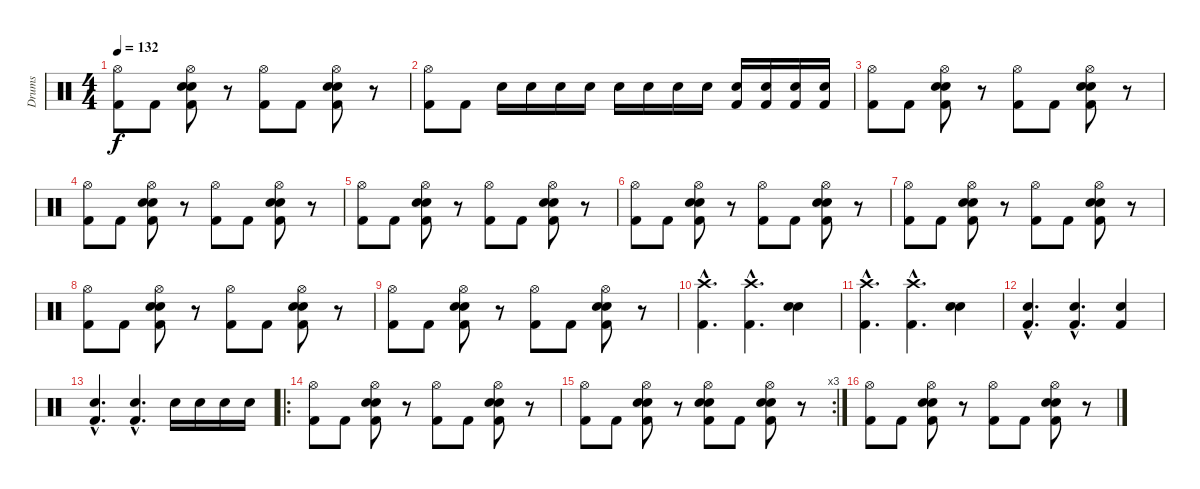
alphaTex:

\track ("Drums" "Drums") {instrument percussion}
\staff {score}
\articulation defaults
\ts (4 4)
\tempo 132
\clef neutral
\ks c
("Hi-Hat (open)" "Kick (hit) 2").8{dy f} "Kick (hit) 2".8 ("Hi-Hat (open)" "Electric Snare (hit)" "Snare (hit) 2" "Kick (hit) 2").8 r.8 ("Hi-Hat (open)" "Kick (hit) 2").8 "Kick (hit) 2".8 ("Hi-Hat (open)" "Electric Snare (hit)" "Snare (hit) 2" "Kick (hit) 2").8 r.8 |
("Hi-Hat (open)" "Kick (hit) 2").8 "Kick (hit) 2".8 "Electric Snare (hit)".16 "Electric Snare (hit)".16 "Electric Snare (hit)".16 "Electric Snare (hit)".16 "Snare (hit) 2".16 "Snare (hit) 2".16 "Snare (hit) 2".16 "Snare (hit) 2".16 ("Kick (hit) 2" "Snare (hit) 2").16 ("Kick (hit) 2" "Snare (hit) 2").16 ("Kick (hit) 2" "Snare (hit) 2").16 ("Kick (hit) 2" "Snare (hit) 2").16 |
("Hi-Hat (open)" "Kick (hit) 2").8 "Kick (hit) 2".8 ("Hi-Hat (open)" "Electric Snare (hit)" "Snare (hit) 2" "Kick (hit) 2").8 r.8 ("Hi-Hat (open)" "Kick (hit) 2").8 "Kick (hit) 2".8 ("Hi-Hat (open)" "Electric Snare (hit)" "Snare (hit) 2" "Kick (hit) 2").8 r.8 |
("Hi-Hat (open)" "Kick (hit) 2").8 "Kick (hit) 2".8 ("Hi-Hat (open)" "Electric Snare (hit)" "Snare (hit) 2" "Kick (hit) 2").8 r.8 ("Hi-Hat (open)" "Kick (hit) 2").8 "Kick (hit) 2".8 ("Hi-Hat (open)" "Electric Snare (hit)" "Snare (hit) 2" "Kick (hit) 2").8 r.8 |
("Hi-Hat (open)" "Kick (hit) 2").8 "Kick (hit) 2".8 ("Hi-Hat (open)" "Electric Snare (hit)" "Snare (hit) 2" "Kick (hit) 2").8 r.8 ("Hi-Hat (open)" "Kick (hit) 2").8 "Kick (hit) 2".8 ("Hi-Hat (open)" "Electric Snare (hit)" "Snare (hit) 2" "Kick (hit) 2").8 r.8 |
("Hi-Hat (open)" "Kick (hit) 2").8 "Kick (hit) 2".8 ("Hi-Hat (open)" "Electric Snare (hit)" "Snare (hit) 2" "Kick (hit) 2").8 r.8 ("Hi-Hat (open)" "Kick (hit) 2").8 "Kick (hit) 2".8 ("Hi-Hat (open)" "Electric Snare (hit)" "Snare (hit) 2" "Kick (hit) 2").8 r.8 |
("Hi-Hat (open)" "Kick (hit) 2").8 "Kick (hit) 2".8 ("Hi-Hat (open)" "Electric Snare (hit)" "Snare (hit) 2" "Kick (hit) 2").8 r.8 ("Hi-Hat (open)" "Kick (hit) 2").8 "Kick (hit) 2".8 ("Hi-Hat (open)" "Electric Snare (hit)" "Snare (hit) 2" "Kick (hit) 2").8 r.8 |
("Hi-Hat (open)" "Kick (hit) 2").8 "Kick (hit) 2".8 ("Hi-Hat (open)" "Electric Snare (hit)" "Snare (hit) 2" "Kick (hit) 2").8 r.8 ("Hi-Hat (open)" "Kick (hit) 2").8 "Kick (hit) 2".8 ("Hi-Hat (open)" "Electric Snare (hit)" "Snare (hit) 2" "Kick (hit) 2").8 r.8 |
("Hi-Hat (open)" "Kick (hit) 2").8 "Kick (hit) 2".8 ("Hi-Hat (open)" "Electric Snare (hit)" "Snare (hit) 2" "Kick (hit) 2").8 r.8 ("Hi-Hat (open)" "Kick (hit) 2").8 "Kick (hit) 2".8 ("Hi-Hat (open)" "Electric Snare (hit)" "Snare (hit) 2" "Kick (hit) 2").8 r.8 |
("Crash high (hit)"{hac} "Kick (hit) 2"{hac}).4{d} ("Crash high (hit)"{hac} "Kick (hit) 2"{hac}).4{d} ("Electric Snare (hit)" "Snare (hit) 2").4 |
("Crash high (hit)"{hac} "Kick (hit) 2"{hac}).4{d} ("Crash high (hit)"{hac} "Kick (hit) 2"{hac}).4{d} ("Electric Snare (hit)" "Snare (hit) 2").4 |
("Snare (hit) 2"{hac} "Kick (hit) 2"{hac}).4{d} ("Snare (hit) 2"{hac} "Kick (hit) 2"{hac}).4{d} ("Snare (hit) 2" "Kick (hit) 2").4 |
("Snare (hit) 2"{hac} "Kick (hit) 2"{hac}).4{d} ("Snare (hit) 2"{hac} "Kick (hit) 2"{hac}).4{d} "Snare (hit) 2".16 "Snare (hit) 2".16 "Snare (hit) 2".16 "Snare (hit) 2".16 |
\ro
("Hi-Hat (open)" "Kick (hit) 2").8 "Kick (hit) 2".8 ("Hi-Hat (open)" "Electric Snare (hit)" "Snare (hit) 2" "Kick (hit) 2").8 r.8 ("Hi-Hat (open)" "Kick (hit) 2").8 "Kick (hit) 2".8 ("Hi-Hat (open)" "Electric Snare (hit)" "Snare (hit) 2" "Kick (hit) 2").8 r.8 |
\rc 3
("Hi-Hat (open)" "Kick (hit) 2").8 "Kick (hit) 2".8 ("Hi-Hat (open)" "Electric Snare (hit)" "Snare (hit) 2" "Kick (hit) 2").8 r.8 ("Hi-Hat (open)" "Electric Snare (hit)" "Snare (hit) 2" "Kick (hit) 2").8 "Kick (hit) 2".8 ("Hi-Hat (open)" "Electric Snare (hit)" "Snare (hit) 2" "Kick (hit) 2").8 r.8 |
("Hi-Hat (open)" "Kick (hit) 2").8 "Kick (hit) 2".8 ("Hi-Hat (open)" "Electric Snare (hit)" "Snare (hit) 2" "Kick (hit) 2").8 r.8 ("Hi-Hat (open)" "Kick (hit) 2").8 "Kick (hit) 2".8 ("Hi-Hat (open)" "Electric Snare (hit)" "Snare (hit) 2" "Kick (hit) 2").8 r.8
